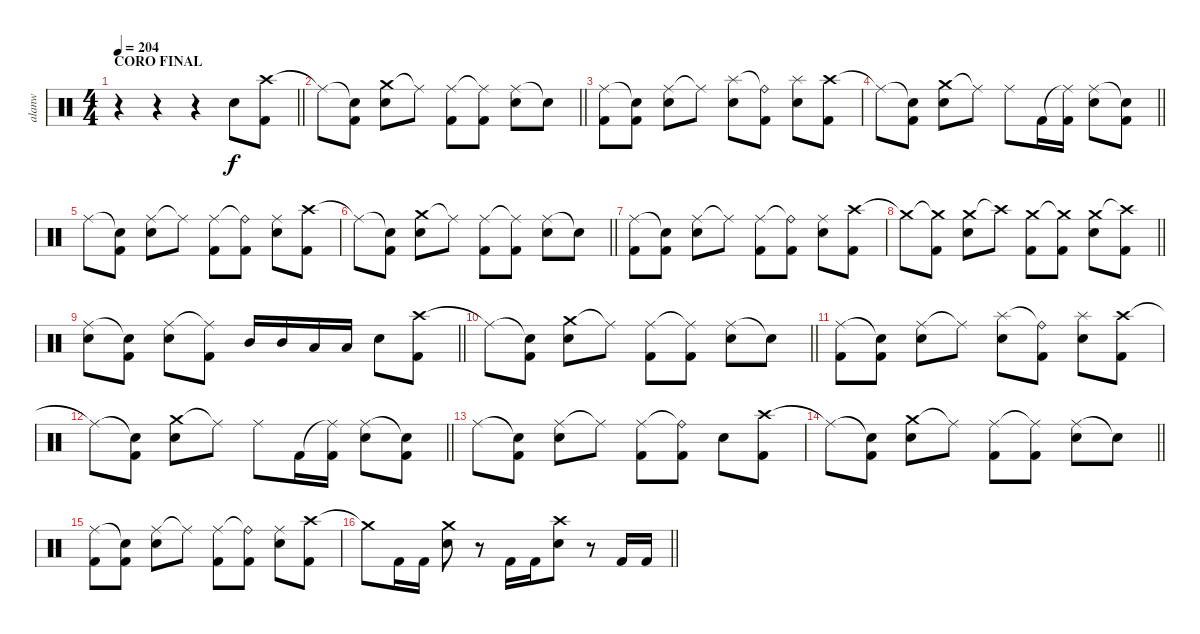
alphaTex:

\track ("alanw" "alanw") {instrument percussion}
\staff {score}
\articulation defaults
\ts (4 4)
\section ("" "CORO FINAL")
\tempo 204
\clef neutral
\barLineRight lightlight
\ks c
r.4{dy f} r.4 r.4 "Electric Snare (hit)".8 ("Crash high (hit)" "Kick (hit) 2").8 |
\barLineRight lightlight "Ride (middle)"{t}.8
("Snare (hit)"{t} "Kick (hit) 2").8 ("Crash medium (hit)" "Electric Snare (hit)").8 "Ride (middle)"{t}.8 ("Ride (middle)" "Kick (hit) 2").8 ("Ride (middle)"{t} "Kick (hit) 2").8 ("Ride (middle)" "Electric Snare (hit)").8 "Snare (hit)"{t}.8 |
("Ride (middle)" "Kick (hit) 2").8 ("Snare (hit)"{t} "Kick (hit) 2").8 ("Ride (middle)" "Electric Snare (hit)").8 "Ride (middle)"{t}.8 ("Splash (hit)" "Electric Snare (hit)").8 ("Ride (bell)"{t} "Kick (hit) 2").8 ("Splash (hit)" "Electric Snare (hit)").8 ("Crash high (hit)" "Kick (hit) 2").8 |
\barLineRight lightlight "Ride (middle)"{t}.8
("Snare (hit)"{t} "Kick (hit) 2").8 ("Crash medium (hit)" "Electric Snare (hit)").8 "Ride (middle)"{t}.8 "Ride (middle)".8 "Kick (hit) 2".16 ("Ride (middle)"{t} "Kick (hit) 2").16 ("Ride (middle)" "Electric Snare (hit)").8 ("Snare (hit)"{t} "Kick (hit) 2").8 |
"Ride (middle)".8 ("Snare (hit)"{t} "Kick (hit) 2").8 ("Ride (middle)" "Electric Snare (hit)").8 "Ride (middle)"{t}.8 ("Ride (middle)" "Kick (hit) 2").8 ("Ride (bell)"{t} "Kick (hit) 2").8 ("Ride (middle)" "Electric Snare (hit)").8 ("Crash high (hit)" "Kick (hit) 2").8 |
\barLineRight lightlight "Ride (middle)"{t}.8
("Snare (hit)"{t} "Kick (hit) 2").8 ("Crash medium (hit)" "Electric Snare (hit)").8 "Ride (middle)"{t}.8 ("Ride (middle)" "Kick (hit) 2").8 ("Ride (middle)"{t} "Kick (hit) 2").8 ("Ride (middle)" "Electric Snare (hit)").8 "Snare (hit)"{t}.8 |
("Ride (middle)" "Kick (hit) 2").8 ("Snare (hit)"{t} "Kick (hit) 2").8 ("Ride (middle)" "Electric Snare (hit)").8 "Ride (middle)"{t}.8 ("Ride (middle)" "Kick (hit) 2").8 ("Ride (bell)"{t} "Kick (hit) 2").8 ("Ride (middle)" "Electric Snare (hit)").8 ("Crash high (hit)" "Kick (hit) 2").8 |
\barLineRight lightlight "Crash medium (hit)"{t}.8
("Crash medium (hit)"{t} "Kick (hit) 2").8 ("Crash medium (hit)" "Electric Snare (hit)").8 "Crash high (hit)"{t}.8 ("Crash medium (hit)" "Kick (hit) 2").8 ("Crash medium (hit)"{t} "Kick (hit) 2").8 ("Crash medium (hit)" "Electric Snare (hit)").8 ("Crash high (hit)"{t} "Kick (hit) 2").8 |
\section ("" "")
\barLineRight lightlight
("Ride (middle)" "Electric Snare (hit)").8 ("Snare (hit)"{t} "Kick (hit) 2").8 ("Ride (middle)" "Electric Snare (hit)").8 ("Ride (middle)"{t} "Kick (hit) 2").8 "Mid Tom (hit)".16 "Mid Tom (hit)".16 "Low Tom (hit)".16 "Low Tom (hit)".16 "Electric Snare (hit)".8 ("Crash high (hit)" "Kick (hit) 2").8 |
\barLineRight lightlight "Ride (middle)"{t}.8
("Snare (hit)"{t} "Kick (hit) 2").8 ("Crash medium (hit)" "Electric Snare (hit)").8 "Ride (middle)"{t}.8 ("Ride (middle)" "Kick (hit) 2").8 ("Ride (middle)"{t} "Kick (hit) 2").8 ("Ride (middle)" "Electric Snare (hit)").8 "Snare (hit)"{t}.8 |
("Ride (middle)" "Kick (hit) 2").8 ("Snare (hit)"{t} "Kick (hit) 2").8 ("Ride (middle)" "Electric Snare (hit)").8 "Ride (middle)"{t}.8 ("Splash (hit)" "Electric Snare (hit)").8 ("Ride (bell)"{t} "Kick (hit) 2").8 ("Splash (hit)" "Electric Snare (hit)").8 ("Crash high (hit)" "Kick (hit) 2").8 |
\barLineRight lightlight "Ride (middle)"{t}.8
("Snare (hit)"{t} "Kick (hit) 2").8 ("Crash medium (hit)" "Electric Snare (hit)").8 "Ride (middle)"{t}.8 "Ride (middle)".8 "Kick (hit) 2".16 ("Ride (middle)"{t} "Kick (hit) 2").16 ("Ride (middle)" "Electric Snare (hit)").8 ("Snare (hit)"{t} "Kick (hit) 2").8 |
"Ride (middle)".8 ("Snare (hit)"{t} "Kick (hit) 2").8 ("Ride (middle)" "Electric Snare (hit)").8 "Ride (middle)"{t}.8 ("Ride (middle)" "Kick (hit) 2").8 ("Ride (bell)"{t} "Kick (hit) 2").8 "Electric Snare (hit)".8 ("Crash high (hit)" "Kick (hit) 2").8 |
\barLineRight lightlight "Ride (middle)"{t}.8
("Snare (hit)"{t} "Kick (hit) 2").8 ("Crash medium (hit)" "Electric Snare (hit)").8 "Ride (middle)"{t}.8 ("Ride (middle)" "Kick (hit) 2").8 ("Ride (middle)"{t} "Kick (hit) 2").8 ("Ride (middle)" "Electric Snare (hit)").8 "Snare (hit)"{t}.8 |
("Ride (middle)" "Kick (hit) 2").8 ("Snare (hit)"{t} "Kick (hit) 2").8 ("Ride (middle)" "Electric Snare (hit)").8 "Ride (middle)"{t}.8 ("Ride (middle)" "Kick (hit) 2").8 ("Ride (bell)"{t} "Kick (hit) 2").8 ("Ride (middle)" "Electric Snare (hit)").8 ("Crash high (hit)" "Kick (hit) 2").8 |
\barLineRight lightlight "Crash medium (hit)"{t}.8 "Kick (hit) 2".16 "Kick (hit) 2".16
("Crash medium (hit)" "Electric Snare (hit)").8 r.8 "Kick (hit) 2".16 "Kick (hit) 2".16 ("Crash high (hit)" "Electric Snare (hit)").8 r.8 "Kick (hit) 2".16 "Kick (hit) 2".16
